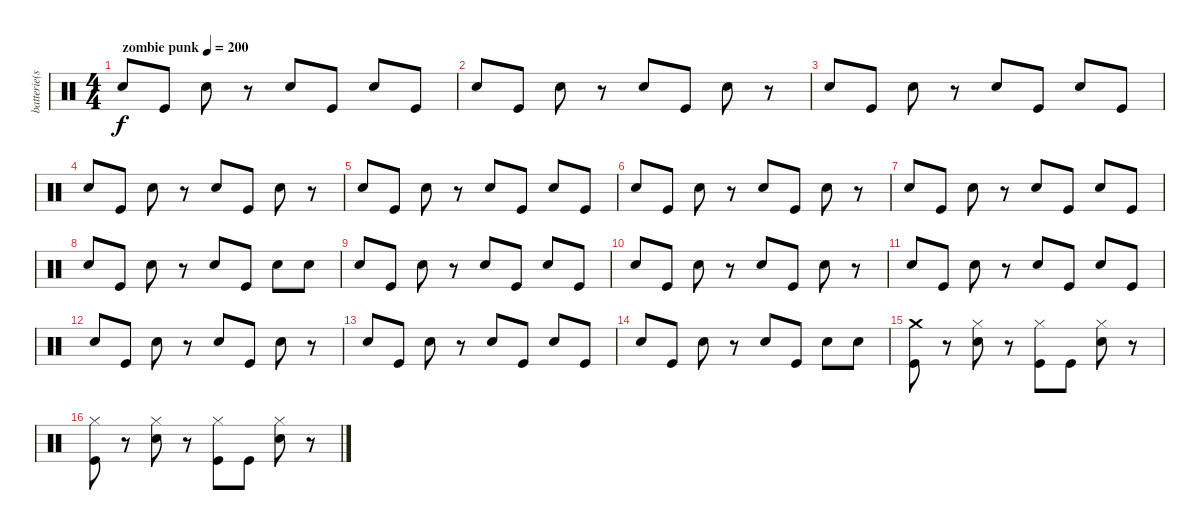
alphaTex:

\track ("batterie(scott)" "batterie(s") {instrument percussion}
\staff {score}
\articulation defaults
\ts (4 4)
\tempo (200 "zombie punk")
\clef neutral
\ks c "Snare (hit) 2".8{dy f} "Kick (hit)".8 "Snare (hit) 2".8
r.8 "Snare (hit) 2".8 "Kick (hit)".8 "Snare (hit) 2".8 "Kick (hit)".8 |
"Snare (hit) 2".8 "Kick (hit)".8 "Snare (hit) 2".8 r.8 "Snare (hit) 2".8 "Kick (hit)".8 "Snare (hit) 2".8 r.8 |
"Snare (hit) 2".8 "Kick (hit)".8 "Snare (hit) 2".8 r.8 "Snare (hit) 2".8 "Kick (hit)".8 "Snare (hit) 2".8 "Kick (hit)".8 |
"Snare (hit) 2".8 "Kick (hit)".8 "Snare (hit) 2".8 r.8 "Snare (hit) 2".8 "Kick (hit)".8 "Snare (hit) 2".8 r.8 |
"Snare (hit) 2".8 "Kick (hit)".8 "Snare (hit) 2".8 r.8 "Snare (hit) 2".8 "Kick (hit)".8 "Snare (hit) 2".8 "Kick (hit)".8 |
"Snare (hit) 2".8 "Kick (hit)".8 "Snare (hit) 2".8 r.8 "Snare (hit) 2".8 "Kick (hit)".8 "Snare (hit) 2".8 r.8 |
"Snare (hit) 2".8 "Kick (hit)".8 "Snare (hit) 2".8 r.8 "Snare (hit) 2".8 "Kick (hit)".8 "Snare (hit) 2".8 "Kick (hit)".8 |
"Snare (hit) 2".8 "Kick (hit)".8 "Snare (hit) 2".8 r.8 "Snare (hit) 2".8 "Kick (hit)".8 "Snare (hit) 2".8 "Snare (hit) 2".8 |
"Snare (hit) 2".8 "Kick (hit)".8 "Snare (hit) 2".8 r.8 "Snare (hit) 2".8 "Kick (hit)".8 "Snare (hit) 2".8 "Kick (hit)".8 |
"Snare (hit) 2".8 "Kick (hit)".8 "Snare (hit) 2".8 r.8 "Snare (hit) 2".8 "Kick (hit)".8 "Snare (hit) 2".8 r.8 |
"Snare (hit) 2".8 "Kick (hit)".8 "Snare (hit) 2".8 r.8 "Snare (hit) 2".8 "Kick (hit)".8 "Snare (hit) 2".8 "Kick (hit)".8 |
"Snare (hit) 2".8 "Kick (hit)".8 "Snare (hit) 2".8 r.8 "Snare (hit) 2".8 "Kick (hit)".8 "Snare (hit) 2".8 r.8 |
"Snare (hit) 2".8 "Kick (hit)".8 "Snare (hit) 2".8 r.8 "Snare (hit) 2".8 "Kick (hit)".8 "Snare (hit) 2".8 "Kick (hit)".8 |
"Snare (hit) 2".8 "Kick (hit)".8 "Snare (hit) 2".8 r.8 "Snare (hit) 2".8 "Kick (hit)".8 "Snare (hit) 2".8 "Snare (hit) 2".8 |
("Crash medium (hit)" "Kick (hit)").8 r.8 ("Hi-Hat (closed)" "Snare (hit) 2").8 r.8 ("Hi-Hat (closed)" "Kick (hit)").8 "Kick (hit)".8 ("Hi-Hat (closed)" "Snare (hit) 2").8 r.8 |
("Hi-Hat (closed)" "Kick (hit)").8 r.8 ("Hi-Hat (closed)" "Snare (hit) 2").8 r.8 ("Hi-Hat (closed)" "Kick (hit)").8 "Kick (hit)".8 ("Hi-Hat (closed)" "Snare (hit) 2").8 r.8
